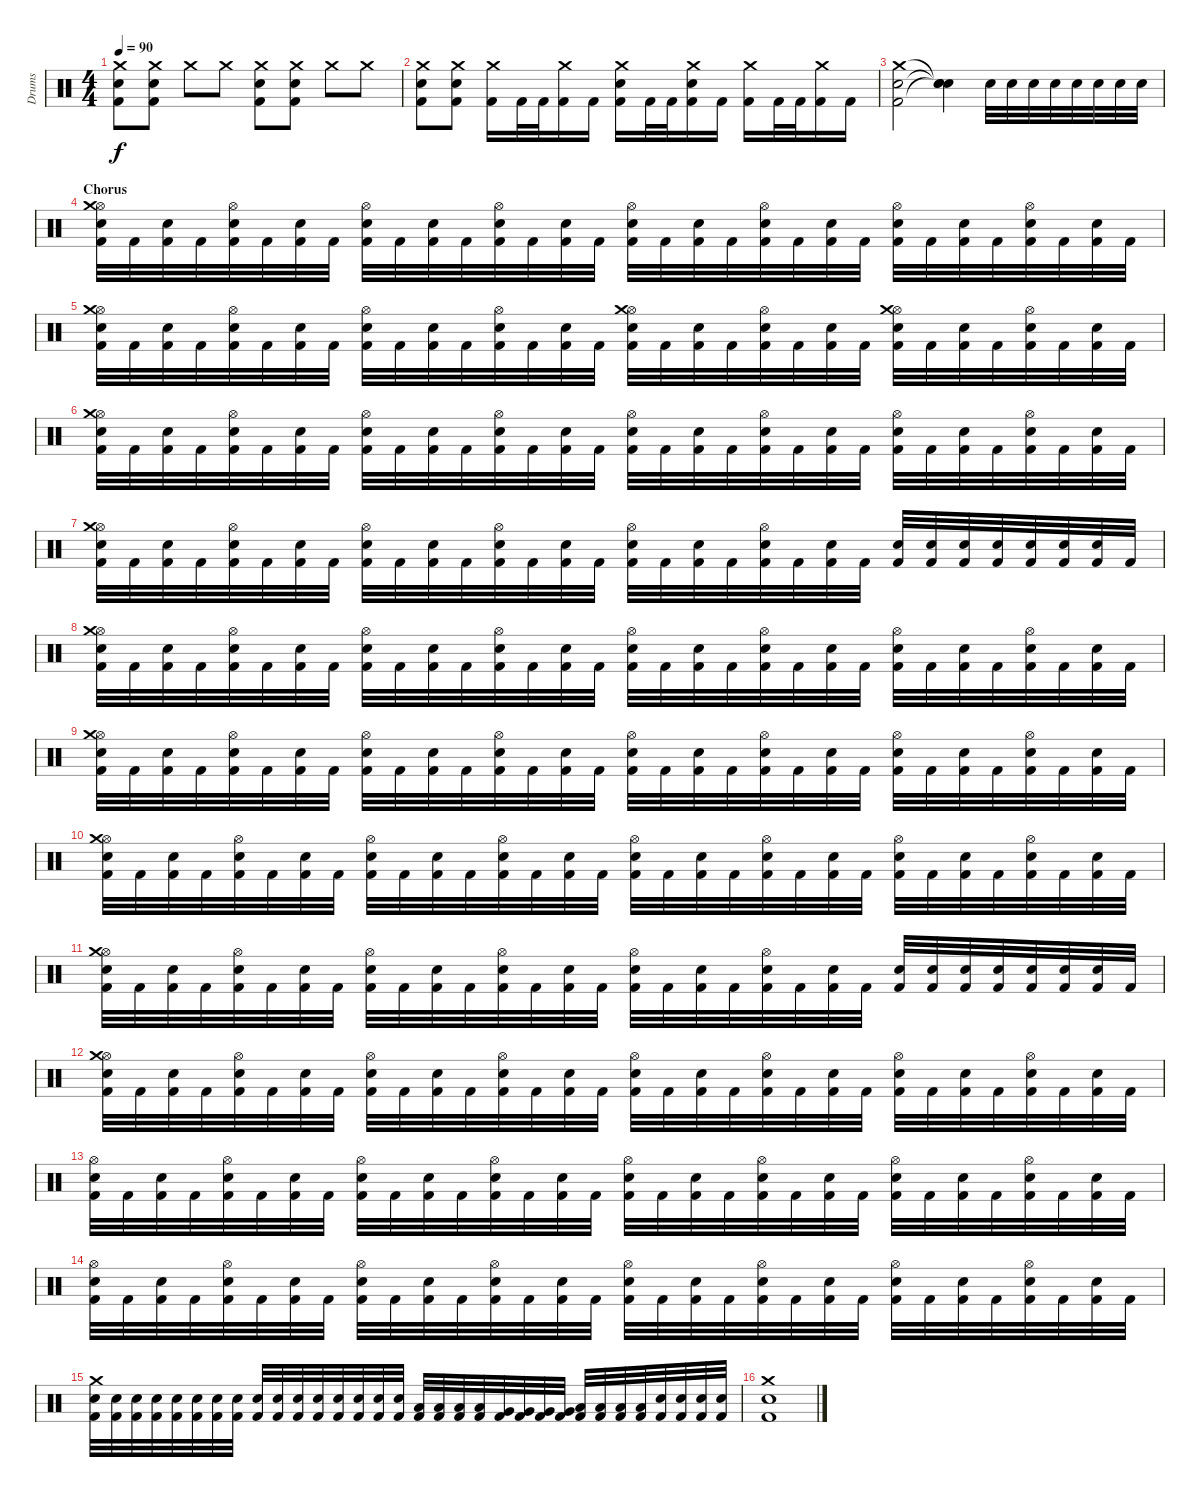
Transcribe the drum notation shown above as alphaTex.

\track ("Drums" "Drums") {instrument percussion}
\staff {score}
\articulation defaults
\ts (4 4)
\tempo 90
\clef neutral
\ks c
("Kick (hit) 2" "Snare (hit) 2" "Crash medium (hit)").8{dy f} ("Kick (hit) 2" "Snare (hit) 2" "Crash medium (hit)").8 "Crash medium (hit)".8 "Crash medium (hit)".8 ("Kick (hit) 2" "Snare (hit) 2" "Crash medium (hit)").8 ("Kick (hit) 2" "Snare (hit) 2" "Crash medium (hit)").8 "Crash medium (hit)".8 "Crash medium (hit)".8 |
("Kick (hit) 2" "Snare (hit) 2" "Crash medium (hit)").8 ("Kick (hit) 2" "Snare (hit) 2" "Crash medium (hit)").8 ("Kick (hit) 2" "Crash medium (hit)").16 "Kick (hit) 2".32 "Kick (hit) 2".32 ("Kick (hit) 2" "Crash medium (hit)").16 "Kick (hit) 2".16 ("Kick (hit) 2" "Snare (hit) 2" "Crash medium (hit)").16 "Kick (hit) 2".32 "Kick (hit) 2".32 ("Kick (hit) 2" "Snare (hit) 2" "Crash medium (hit)").16 "Kick (hit) 2".16 ("Kick (hit) 2" "Crash medium (hit)").16 "Kick (hit) 2".32 "Kick (hit) 2".32 ("Kick (hit) 2" "Crash medium (hit)").16 "Kick (hit) 2".16 |
("Kick (hit) 2" "Snare (hit) 2" "Crash medium (hit)").2 ("Snare (hit)"{t} "Snare (hit)"{t} "Snare (hit)"{t}).4 "Snare (hit) 2".32 "Snare (hit) 2".32 "Snare (hit) 2".32 "Snare (hit) 2".32 "Snare (hit) 2".32 "Snare (hit) 2".32 "Snare (hit) 2".32 "Snare (hit) 2".32 |
\section ("" "Chorus")
("Kick (hit) 2" "Hi-Hat (open)" "Snare (hit) 2" "Crash medium (hit)").32 "Kick (hit) 2".32 ("Kick (hit) 2" "Snare (hit) 2").32 "Kick (hit) 2".32 ("Kick (hit) 2" "Hi-Hat (open)" "Snare (hit) 2").32 "Kick (hit) 2".32 ("Kick (hit) 2" "Snare (hit) 2").32 "Kick (hit) 2".32 ("Kick (hit) 2" "Hi-Hat (open)" "Snare (hit) 2").32 "Kick (hit) 2".32 ("Kick (hit) 2" "Snare (hit) 2").32 "Kick (hit) 2".32 ("Kick (hit) 2" "Hi-Hat (open)" "Snare (hit) 2").32 "Kick (hit) 2".32 ("Kick (hit) 2" "Snare (hit) 2").32 "Kick (hit) 2".32 ("Kick (hit) 2" "Hi-Hat (open)" "Snare (hit) 2").32 "Kick (hit) 2".32 ("Kick (hit) 2" "Snare (hit) 2").32 "Kick (hit) 2".32 ("Kick (hit) 2" "Hi-Hat (open)" "Snare (hit) 2").32 "Kick (hit) 2".32 ("Kick (hit) 2" "Snare (hit) 2").32 "Kick (hit) 2".32 ("Kick (hit) 2" "Hi-Hat (open)" "Snare (hit) 2").32 "Kick (hit) 2".32 ("Kick (hit) 2" "Snare (hit) 2").32 "Kick (hit) 2".32 ("Kick (hit) 2" "Hi-Hat (open)" "Snare (hit) 2").32 "Kick (hit) 2".32 ("Kick (hit) 2" "Snare (hit) 2").32 "Kick (hit) 2".32 |
("Kick (hit) 2" "Hi-Hat (open)" "Snare (hit) 2" "Crash medium (hit)").32 "Kick (hit) 2".32 ("Kick (hit) 2" "Snare (hit) 2").32 "Kick (hit) 2".32 ("Kick (hit) 2" "Hi-Hat (open)" "Snare (hit) 2").32 "Kick (hit) 2".32 ("Kick (hit) 2" "Snare (hit) 2").32 "Kick (hit) 2".32 ("Kick (hit) 2" "Hi-Hat (open)" "Snare (hit) 2").32 "Kick (hit) 2".32 ("Kick (hit) 2" "Snare (hit) 2").32 "Kick (hit) 2".32 ("Kick (hit) 2" "Hi-Hat (open)" "Snare (hit) 2").32 "Kick (hit) 2".32 ("Kick (hit) 2" "Snare (hit) 2").32 "Kick (hit) 2".32 ("Kick (hit) 2" "Hi-Hat (open)" "Snare (hit) 2" "Crash medium (hit)").32 "Kick (hit) 2".32 ("Kick (hit) 2" "Snare (hit) 2").32 "Kick (hit) 2".32 ("Kick (hit) 2" "Hi-Hat (open)" "Snare (hit) 2").32 "Kick (hit) 2".32 ("Kick (hit) 2" "Snare (hit) 2").32 "Kick (hit) 2".32 ("Kick (hit) 2" "Hi-Hat (open)" "Snare (hit) 2" "Crash medium (hit)").32 "Kick (hit) 2".32 ("Kick (hit) 2" "Snare (hit) 2").32 "Kick (hit) 2".32 ("Kick (hit) 2" "Hi-Hat (open)" "Snare (hit) 2").32 "Kick (hit) 2".32 ("Kick (hit) 2" "Snare (hit) 2").32 "Kick (hit) 2".32 |
("Kick (hit) 2" "Hi-Hat (open)" "Snare (hit) 2" "Crash medium (hit)").32 "Kick (hit) 2".32 ("Kick (hit) 2" "Snare (hit) 2").32 "Kick (hit) 2".32 ("Kick (hit) 2" "Hi-Hat (open)" "Snare (hit) 2").32 "Kick (hit) 2".32 ("Kick (hit) 2" "Snare (hit) 2").32 "Kick (hit) 2".32 ("Kick (hit) 2" "Hi-Hat (open)" "Snare (hit) 2").32 "Kick (hit) 2".32 ("Kick (hit) 2" "Snare (hit) 2").32 "Kick (hit) 2".32 ("Kick (hit) 2" "Hi-Hat (open)" "Snare (hit) 2").32 "Kick (hit) 2".32 ("Kick (hit) 2" "Snare (hit) 2").32 "Kick (hit) 2".32 ("Kick (hit) 2" "Hi-Hat (open)" "Snare (hit) 2").32 "Kick (hit) 2".32 ("Kick (hit) 2" "Snare (hit) 2").32 "Kick (hit) 2".32 ("Kick (hit) 2" "Hi-Hat (open)" "Snare (hit) 2").32 "Kick (hit) 2".32 ("Kick (hit) 2" "Snare (hit) 2").32 "Kick (hit) 2".32 ("Kick (hit) 2" "Hi-Hat (open)" "Snare (hit) 2").32 "Kick (hit) 2".32 ("Kick (hit) 2" "Snare (hit) 2").32 "Kick (hit) 2".32 ("Kick (hit) 2" "Hi-Hat (open)" "Snare (hit) 2").32 "Kick (hit) 2".32 ("Kick (hit) 2" "Snare (hit) 2").32 "Kick (hit) 2".32 |
("Kick (hit) 2" "Hi-Hat (open)" "Snare (hit) 2" "Crash medium (hit)").32 "Kick (hit) 2".32 ("Kick (hit) 2" "Snare (hit) 2").32 "Kick (hit) 2".32 ("Kick (hit) 2" "Hi-Hat (open)" "Snare (hit) 2").32 "Kick (hit) 2".32 ("Kick (hit) 2" "Snare (hit) 2").32 "Kick (hit) 2".32 ("Kick (hit) 2" "Hi-Hat (open)" "Snare (hit) 2").32 "Kick (hit) 2".32 ("Kick (hit) 2" "Snare (hit) 2").32 "Kick (hit) 2".32 ("Kick (hit) 2" "Hi-Hat (open)" "Snare (hit) 2").32 "Kick (hit) 2".32 ("Kick (hit) 2" "Snare (hit) 2").32 "Kick (hit) 2".32 ("Kick (hit) 2" "Hi-Hat (open)" "Snare (hit) 2").32 "Kick (hit) 2".32 ("Kick (hit) 2" "Snare (hit) 2").32 "Kick (hit) 2".32 ("Kick (hit) 2" "Hi-Hat (open)" "Snare (hit) 2").32 "Kick (hit) 2".32 ("Kick (hit) 2" "Snare (hit) 2").32 "Kick (hit) 2".32 ("Kick (hit) 2" "Snare (hit) 2").32 ("Kick (hit) 2" "Snare (hit) 2").32 ("Kick (hit) 2" "Snare (hit) 2").32 ("Kick (hit) 2" "Snare (hit) 2").32 ("Kick (hit) 2" "Snare (hit) 2").32 ("Kick (hit) 2" "Snare (hit) 2").32 ("Kick (hit) 2" "Snare (hit) 2").32 "Kick (hit) 2".32 |
("Kick (hit) 2" "Hi-Hat (open)" "Snare (hit) 2" "Crash medium (hit)").32 "Kick (hit) 2".32 ("Kick (hit) 2" "Snare (hit) 2").32 "Kick (hit) 2".32 ("Kick (hit) 2" "Hi-Hat (open)" "Snare (hit) 2").32 "Kick (hit) 2".32 ("Kick (hit) 2" "Snare (hit) 2").32 "Kick (hit) 2".32 ("Kick (hit) 2" "Hi-Hat (open)" "Snare (hit) 2").32 "Kick (hit) 2".32 ("Kick (hit) 2" "Snare (hit) 2").32 "Kick (hit) 2".32 ("Kick (hit) 2" "Hi-Hat (open)" "Snare (hit) 2").32 "Kick (hit) 2".32 ("Kick (hit) 2" "Snare (hit) 2").32 "Kick (hit) 2".32 ("Kick (hit) 2" "Hi-Hat (open)" "Snare (hit) 2").32 "Kick (hit) 2".32 ("Kick (hit) 2" "Snare (hit) 2").32 "Kick (hit) 2".32 ("Kick (hit) 2" "Hi-Hat (open)" "Snare (hit) 2").32 "Kick (hit) 2".32 ("Kick (hit) 2" "Snare (hit) 2").32 "Kick (hit) 2".32 ("Kick (hit) 2" "Hi-Hat (open)" "Snare (hit) 2").32 "Kick (hit) 2".32 ("Kick (hit) 2" "Snare (hit) 2").32 "Kick (hit) 2".32 ("Kick (hit) 2" "Hi-Hat (open)" "Snare (hit) 2").32 "Kick (hit) 2".32 ("Kick (hit) 2" "Snare (hit) 2").32 "Kick (hit) 2".32 |
("Kick (hit) 2" "Hi-Hat (open)" "Snare (hit) 2" "Crash medium (hit)").32 "Kick (hit) 2".32 ("Kick (hit) 2" "Snare (hit) 2").32 "Kick (hit) 2".32 ("Kick (hit) 2" "Hi-Hat (open)" "Snare (hit) 2").32 "Kick (hit) 2".32 ("Kick (hit) 2" "Snare (hit) 2").32 "Kick (hit) 2".32 ("Kick (hit) 2" "Hi-Hat (open)" "Snare (hit) 2").32 "Kick (hit) 2".32 ("Kick (hit) 2" "Snare (hit) 2").32 "Kick (hit) 2".32 ("Kick (hit) 2" "Hi-Hat (open)" "Snare (hit) 2").32 "Kick (hit) 2".32 ("Kick (hit) 2" "Snare (hit) 2").32 "Kick (hit) 2".32 ("Kick (hit) 2" "Hi-Hat (open)" "Snare (hit) 2").32 "Kick (hit) 2".32 ("Kick (hit) 2" "Snare (hit) 2").32 "Kick (hit) 2".32 ("Kick (hit) 2" "Hi-Hat (open)" "Snare (hit) 2").32 "Kick (hit) 2".32 ("Kick (hit) 2" "Snare (hit) 2").32 "Kick (hit) 2".32 ("Kick (hit) 2" "Hi-Hat (open)" "Snare (hit) 2").32 "Kick (hit) 2".32 ("Kick (hit) 2" "Snare (hit) 2").32 "Kick (hit) 2".32 ("Kick (hit) 2" "Hi-Hat (open)" "Snare (hit) 2").32 "Kick (hit) 2".32 ("Kick (hit) 2" "Snare (hit) 2").32 "Kick (hit) 2".32 |
("Kick (hit) 2" "Hi-Hat (open)" "Snare (hit) 2" "Crash medium (hit)").32 "Kick (hit) 2".32 ("Kick (hit) 2" "Snare (hit) 2").32 "Kick (hit) 2".32 ("Kick (hit) 2" "Hi-Hat (open)" "Snare (hit) 2").32 "Kick (hit) 2".32 ("Kick (hit) 2" "Snare (hit) 2").32 "Kick (hit) 2".32 ("Kick (hit) 2" "Hi-Hat (open)" "Snare (hit) 2").32 "Kick (hit) 2".32 ("Kick (hit) 2" "Snare (hit) 2").32 "Kick (hit) 2".32 ("Kick (hit) 2" "Hi-Hat (open)" "Snare (hit) 2").32 "Kick (hit) 2".32 ("Kick (hit) 2" "Snare (hit) 2").32 "Kick (hit) 2".32 ("Kick (hit) 2" "Hi-Hat (open)" "Snare (hit) 2").32 "Kick (hit) 2".32 ("Kick (hit) 2" "Snare (hit) 2").32 "Kick (hit) 2".32 ("Kick (hit) 2" "Hi-Hat (open)" "Snare (hit) 2").32 "Kick (hit) 2".32 ("Kick (hit) 2" "Snare (hit) 2").32 "Kick (hit) 2".32 ("Kick (hit) 2" "Hi-Hat (open)" "Snare (hit) 2").32 "Kick (hit) 2".32 ("Kick (hit) 2" "Snare (hit) 2").32 "Kick (hit) 2".32 ("Kick (hit) 2" "Hi-Hat (open)" "Snare (hit) 2").32 "Kick (hit) 2".32 ("Kick (hit) 2" "Snare (hit) 2").32 "Kick (hit) 2".32 |
("Kick (hit) 2" "Hi-Hat (open)" "Snare (hit) 2" "Crash medium (hit)").32 "Kick (hit) 2".32 ("Kick (hit) 2" "Snare (hit) 2").32 "Kick (hit) 2".32 ("Kick (hit) 2" "Hi-Hat (open)" "Snare (hit) 2").32 "Kick (hit) 2".32 ("Kick (hit) 2" "Snare (hit) 2").32 "Kick (hit) 2".32 ("Kick (hit) 2" "Hi-Hat (open)" "Snare (hit) 2").32 "Kick (hit) 2".32 ("Kick (hit) 2" "Snare (hit) 2").32 "Kick (hit) 2".32 ("Kick (hit) 2" "Hi-Hat (open)" "Snare (hit) 2").32 "Kick (hit) 2".32 ("Kick (hit) 2" "Snare (hit) 2").32 "Kick (hit) 2".32 ("Kick (hit) 2" "Hi-Hat (open)" "Snare (hit) 2").32 "Kick (hit) 2".32 ("Kick (hit) 2" "Snare (hit) 2").32 "Kick (hit) 2".32 ("Kick (hit) 2" "Hi-Hat (open)" "Snare (hit) 2").32 "Kick (hit) 2".32 ("Kick (hit) 2" "Snare (hit) 2").32 "Kick (hit) 2".32 ("Kick (hit) 2" "Snare (hit) 2").32 ("Kick (hit) 2" "Snare (hit) 2").32 ("Kick (hit) 2" "Snare (hit) 2").32 ("Kick (hit) 2" "Snare (hit) 2").32 ("Kick (hit) 2" "Snare (hit) 2").32 ("Kick (hit) 2" "Snare (hit) 2").32 ("Kick (hit) 2" "Snare (hit) 2").32 "Kick (hit) 2".32 |
("Kick (hit) 2" "Hi-Hat (open)" "Snare (hit) 2" "Crash medium (hit)").32 "Kick (hit) 2".32 ("Kick (hit) 2" "Snare (hit) 2").32 "Kick (hit) 2".32 ("Kick (hit) 2" "Hi-Hat (open)" "Snare (hit) 2").32 "Kick (hit) 2".32 ("Kick (hit) 2" "Snare (hit) 2").32 "Kick (hit) 2".32 ("Kick (hit) 2" "Hi-Hat (open)" "Snare (hit) 2").32 "Kick (hit) 2".32 ("Kick (hit) 2" "Snare (hit) 2").32 "Kick (hit) 2".32 ("Kick (hit) 2" "Hi-Hat (open)" "Snare (hit) 2").32 "Kick (hit) 2".32 ("Kick (hit) 2" "Snare (hit) 2").32 "Kick (hit) 2".32 ("Kick (hit) 2" "Hi-Hat (open)" "Snare (hit) 2").32 "Kick (hit) 2".32 ("Kick (hit) 2" "Snare (hit) 2").32 "Kick (hit) 2".32 ("Kick (hit) 2" "Hi-Hat (open)" "Snare (hit) 2").32 "Kick (hit) 2".32 ("Kick (hit) 2" "Snare (hit) 2").32 "Kick (hit) 2".32 ("Kick (hit) 2" "Hi-Hat (open)" "Snare (hit) 2").32 "Kick (hit) 2".32 ("Kick (hit) 2" "Snare (hit) 2").32 "Kick (hit) 2".32 ("Kick (hit) 2" "Hi-Hat (open)" "Snare (hit) 2").32 "Kick (hit) 2".32 ("Kick (hit) 2" "Snare (hit) 2").32 "Kick (hit) 2".32 |
("Kick (hit) 2" "Hi-Hat (open)" "Snare (hit) 2").32 "Kick (hit) 2".32 ("Kick (hit) 2" "Snare (hit) 2").32 "Kick (hit) 2".32 ("Kick (hit) 2" "Hi-Hat (open)" "Snare (hit) 2").32 "Kick (hit) 2".32 ("Kick (hit) 2" "Snare (hit) 2").32 "Kick (hit) 2".32 ("Kick (hit) 2" "Hi-Hat (open)" "Snare (hit) 2").32 "Kick (hit) 2".32 ("Kick (hit) 2" "Snare (hit) 2").32 "Kick (hit) 2".32 ("Kick (hit) 2" "Hi-Hat (open)" "Snare (hit) 2").32 "Kick (hit) 2".32 ("Kick (hit) 2" "Snare (hit) 2").32 "Kick (hit) 2".32 ("Kick (hit) 2" "Hi-Hat (open)" "Snare (hit) 2").32 "Kick (hit) 2".32 ("Kick (hit) 2" "Snare (hit) 2").32 "Kick (hit) 2".32 ("Kick (hit) 2" "Hi-Hat (open)" "Snare (hit) 2").32 "Kick (hit) 2".32 ("Kick (hit) 2" "Snare (hit) 2").32 "Kick (hit) 2".32 ("Kick (hit) 2" "Hi-Hat (open)" "Snare (hit) 2").32 "Kick (hit) 2".32 ("Kick (hit) 2" "Snare (hit) 2").32 "Kick (hit) 2".32 ("Kick (hit) 2" "Hi-Hat (open)" "Snare (hit) 2").32 "Kick (hit) 2".32 ("Kick (hit) 2" "Snare (hit) 2").32 "Kick (hit) 2".32 |
("Kick (hit) 2" "Hi-Hat (open)" "Snare (hit) 2").32 "Kick (hit) 2".32 ("Kick (hit) 2" "Snare (hit) 2").32 "Kick (hit) 2".32 ("Kick (hit) 2" "Hi-Hat (open)" "Snare (hit) 2").32 "Kick (hit) 2".32 ("Kick (hit) 2" "Snare (hit) 2").32 "Kick (hit) 2".32 ("Kick (hit) 2" "Hi-Hat (open)" "Snare (hit) 2").32 "Kick (hit) 2".32 ("Kick (hit) 2" "Snare (hit) 2").32 "Kick (hit) 2".32 ("Kick (hit) 2" "Hi-Hat (open)" "Snare (hit) 2").32 "Kick (hit) 2".32 ("Kick (hit) 2" "Snare (hit) 2").32 "Kick (hit) 2".32 ("Kick (hit) 2" "Hi-Hat (open)" "Snare (hit) 2").32 "Kick (hit) 2".32 ("Kick (hit) 2" "Snare (hit) 2").32 "Kick (hit) 2".32 ("Kick (hit) 2" "Hi-Hat (open)" "Snare (hit) 2").32 "Kick (hit) 2".32 ("Kick (hit) 2" "Snare (hit) 2").32 "Kick (hit) 2".32 ("Kick (hit) 2" "Hi-Hat (open)" "Snare (hit) 2").32 "Kick (hit) 2".32 ("Kick (hit) 2" "Snare (hit) 2").32 "Kick (hit) 2".32 ("Kick (hit) 2" "Hi-Hat (open)" "Snare (hit) 2").32 "Kick (hit) 2".32 ("Kick (hit) 2" "Snare (hit) 2").32 "Kick (hit) 2".32 |
("Kick (hit) 2" "Snare (hit) 2" "Crash medium (hit)").32 ("Kick (hit) 2" "Snare (hit) 2").32 ("Kick (hit) 2" "Snare (hit) 2").32 ("Kick (hit) 2" "Snare (hit) 2").32 ("Kick (hit) 2" "Snare (hit) 2").32 ("Kick (hit) 2" "Snare (hit) 2").32 ("Kick (hit) 2" "Snare (hit) 2").32 ("Kick (hit) 2" "Snare (hit) 2").32 ("Kick (hit) 2" "Snare (hit) 2").32 ("Kick (hit) 2" "Snare (hit) 2").32 ("Kick (hit) 2" "Snare (hit) 2").32 ("Kick (hit) 2" "Snare (hit) 2").32 ("Kick (hit) 2" "Snare (hit) 2").32 ("Kick (hit) 2" "Snare (hit) 2").32 ("Kick (hit) 2" "Snare (hit) 2").32 ("Kick (hit) 2" "Snare (hit) 2").32 ("Kick (hit) 2" "Low Tom (hit)").32 ("Kick (hit) 2" "Low Tom (hit)").32 ("Kick (hit) 2" "Low Tom (hit)").32 ("Kick (hit) 2" "Low Tom (hit)").32 ("Kick (hit) 2" "Very Low Tom (hit)").32 ("Kick (hit) 2" "Very Low Tom (hit)").32 ("Kick (hit) 2" "Very Low Tom (hit)").32 ("Kick (hit) 2" "Very Low Tom (hit)").32 ("Kick (hit) 2" "Low Tom (hit)").32 ("Kick (hit) 2" "Low Tom (hit)").32 ("Kick (hit) 2" "Low Tom (hit)").32 ("Kick (hit) 2" "Low Tom (hit)").32 ("Kick (hit) 2" "Snare (hit) 2").32 ("Kick (hit) 2" "Snare (hit) 2").32 ("Kick (hit) 2" "Snare (hit) 2").32 ("Kick (hit) 2" "Snare (hit) 2").32 |
("Kick (hit) 2" "Snare (hit) 2" "Crash medium (hit)").1
